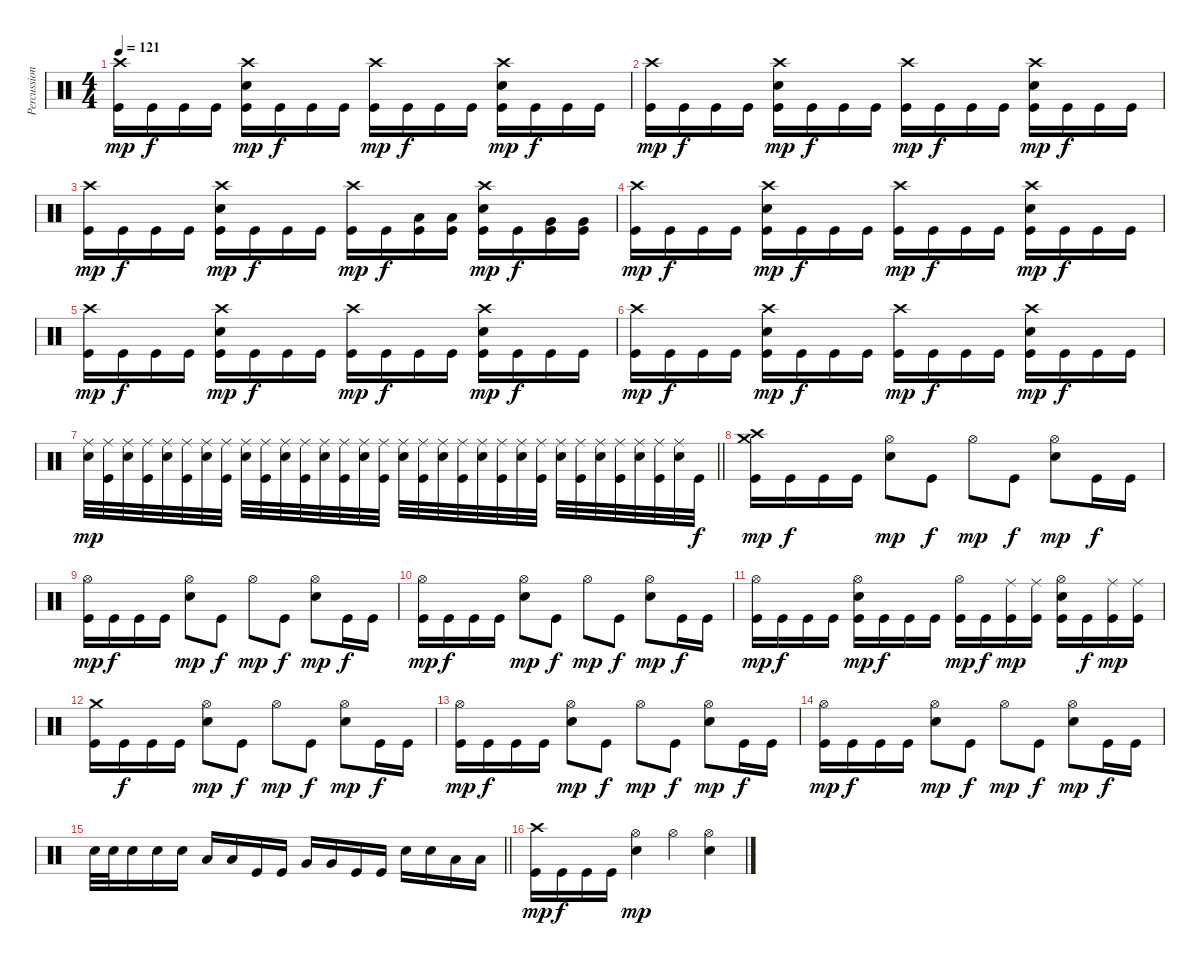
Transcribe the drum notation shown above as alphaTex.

\track ("Percussion" "Percussion") {instrument percussion}
\staff {score}
\articulation defaults
\ts (4 4)
\tempo 121
\clef neutral
\ks c
("Crash high (hit)" "Kick (hit)").16{dy mp} "Kick (hit)".16{dy f} "Kick (hit)".16 "Kick (hit)".16 ("Crash high (hit)" "Electric Snare (hit)" "Kick (hit)").16{dy mp} "Kick (hit)".16{dy f} "Kick (hit)".16 "Kick (hit)".16 ("Crash high (hit)" "Kick (hit)").16{dy mp} "Kick (hit)".16{dy f} "Kick (hit)".16 "Kick (hit)".16 ("Crash high (hit)" "Electric Snare (hit)" "Kick (hit)").16{dy mp} "Kick (hit)".16{dy f} "Kick (hit)".16 "Kick (hit)".16 |
("Crash high (hit)" "Kick (hit)").16{dy mp} "Kick (hit)".16{dy f} "Kick (hit)".16 "Kick (hit)".16 ("Crash high (hit)" "Electric Snare (hit)" "Kick (hit)").16{dy mp} "Kick (hit)".16{dy f} "Kick (hit)".16 "Kick (hit)".16 ("Crash high (hit)" "Kick (hit)").16{dy mp} "Kick (hit)".16{dy f} "Kick (hit)".16 "Kick (hit)".16 ("Crash high (hit)" "Electric Snare (hit)" "Kick (hit)").16{dy mp} "Kick (hit)".16{dy f} "Kick (hit)".16 "Kick (hit)".16 |
("Crash high (hit)" "Kick (hit)").16{dy mp} "Kick (hit)".16{dy f} "Kick (hit)".16 "Kick (hit)".16 ("Crash high (hit)" "Electric Snare (hit)" "Kick (hit)").16{dy mp} "Kick (hit)".16{dy f} "Kick (hit)".16 "Kick (hit)".16 ("Crash high (hit)" "Kick (hit)").16{dy mp} "Kick (hit)".16{dy f} ("Low Tom (hit)" "Kick (hit)").16 ("Low Tom (hit)" "Kick (hit)").16 ("Crash high (hit)" "Electric Snare (hit)" "Kick (hit)").16{dy mp} "Kick (hit)".16{dy f} ("Very Low Tom (hit)" "Kick (hit)").16 ("Very Low Tom (hit)" "Kick (hit)").16 |
("Crash high (hit)" "Kick (hit)").16{dy mp} "Kick (hit)".16{dy f} "Kick (hit)".16 "Kick (hit)".16 ("Crash high (hit)" "Electric Snare (hit)" "Kick (hit)").16{dy mp} "Kick (hit)".16{dy f} "Kick (hit)".16 "Kick (hit)".16 ("Crash high (hit)" "Kick (hit)").16{dy mp} "Kick (hit)".16{dy f} "Kick (hit)".16 "Kick (hit)".16 ("Crash high (hit)" "Electric Snare (hit)" "Kick (hit)").16{dy mp} "Kick (hit)".16{dy f} "Kick (hit)".16 "Kick (hit)".16 |
("Crash high (hit)" "Kick (hit)").16{dy mp} "Kick (hit)".16{dy f} "Kick (hit)".16 "Kick (hit)".16 ("Crash high (hit)" "Electric Snare (hit)" "Kick (hit)").16{dy mp} "Kick (hit)".16{dy f} "Kick (hit)".16 "Kick (hit)".16 ("Crash high (hit)" "Kick (hit)").16{dy mp} "Kick (hit)".16{dy f} "Kick (hit)".16 "Kick (hit)".16 ("Crash high (hit)" "Electric Snare (hit)" "Kick (hit)").16{dy mp} "Kick (hit)".16{dy f} "Kick (hit)".16 "Kick (hit)".16 |
("Crash high (hit)" "Kick (hit)").16{dy mp} "Kick (hit)".16{dy f} "Kick (hit)".16 "Kick (hit)".16 ("Crash high (hit)" "Electric Snare (hit)" "Kick (hit)").16{dy mp} "Kick (hit)".16{dy f} "Kick (hit)".16 "Kick (hit)".16 ("Crash high (hit)" "Kick (hit)").16{dy mp} "Kick (hit)".16{dy f} "Kick (hit)".16 "Kick (hit)".16 ("Crash high (hit)" "Electric Snare (hit)" "Kick (hit)").16{dy mp} "Kick (hit)".16{dy f} "Kick (hit)".16 "Kick (hit)".16 |
\barLineRight lightlight
("Ride (middle)" "Electric Snare (hit)").32{dy mp} ("Ride (middle)" "Kick (hit)").32 ("Ride (middle)" "Electric Snare (hit)").32 ("Ride (middle)" "Kick (hit)").32 ("Ride (middle)" "Electric Snare (hit)").32 ("Ride (middle)" "Kick (hit)").32 ("Ride (middle)" "Electric Snare (hit)").32 ("Ride (middle)" "Kick (hit)").32 ("Ride (middle)" "Electric Snare (hit)").32 ("Ride (middle)" "Kick (hit)").32 ("Ride (middle)" "Electric Snare (hit)").32 ("Ride (middle)" "Kick (hit)").32 ("Ride (middle)" "Electric Snare (hit)").32 ("Ride (middle)" "Kick (hit)").32 ("Ride (middle)" "Electric Snare (hit)").32 ("Ride (middle)" "Kick (hit)").32 ("Ride (middle)" "Electric Snare (hit)").32 ("Ride (middle)" "Kick (hit)").32 ("Ride (middle)" "Electric Snare (hit)").32 ("Ride (middle)" "Kick (hit)").32 ("Ride (middle)" "Electric Snare (hit)").32 ("Ride (middle)" "Kick (hit)").32 ("Ride (middle)" "Electric Snare (hit)").32 ("Ride (middle)" "Kick (hit)").32 ("Ride (middle)" "Electric Snare (hit)").32 ("Ride (middle)" "Kick (hit)").32 ("Ride (middle)" "Electric Snare (hit)").32 ("Ride (middle)" "Kick (hit)").32 ("Ride (middle)" "Electric Snare (hit)").32 ("Ride (middle)" "Kick (hit)").32 ("Ride (middle)" "Electric Snare (hit)").32 "Kick (hit)".32{dy f} |
\section ("" "")
("Crash high (hit)" "Crash medium (hit)" "Kick (hit)").16{dy mp} "Kick (hit)".16{dy f} "Kick (hit)".16 "Kick (hit)".16 ("Hi-Hat (open)" "Electric Snare (hit)").8{dy mp} "Kick (hit)".8{dy f} "Hi-Hat (open)".8{dy mp} "Kick (hit)".8{dy f} ("Hi-Hat (open)" "Electric Snare (hit)").8{dy mp} "Kick (hit)".16{dy f} "Kick (hit)".16 |
("Hi-Hat (open)" "Kick (hit)").16{dy mp} "Kick (hit)".16{dy f} "Kick (hit)".16 "Kick (hit)".16 ("Hi-Hat (open)" "Electric Snare (hit)").8{dy mp} "Kick (hit)".8{dy f} "Hi-Hat (open)".8{dy mp} "Kick (hit)".8{dy f} ("Hi-Hat (open)" "Electric Snare (hit)").8{dy mp} "Kick (hit)".16{dy f} "Kick (hit)".16 |
("Hi-Hat (open)" "Kick (hit)").16{dy mp} "Kick (hit)".16{dy f} "Kick (hit)".16 "Kick (hit)".16 ("Hi-Hat (open)" "Electric Snare (hit)").8{dy mp} "Kick (hit)".8{dy f} "Hi-Hat (open)".8{dy mp} "Kick (hit)".8{dy f} ("Hi-Hat (open)" "Electric Snare (hit)").8{dy mp} "Kick (hit)".16{dy f} "Kick (hit)".16 |
("Hi-Hat (open)" "Kick (hit)").16{dy mp} "Kick (hit)".16{dy f} "Kick (hit)".16 "Kick (hit)".16 ("Hi-Hat (open)" "Electric Snare (hit)" "Kick (hit)").16{dy mp} "Kick (hit)".16{dy f} "Kick (hit)".16 "Kick (hit)".16 ("Hi-Hat (open)" "Kick (hit)").16{dy mp} "Kick (hit)".16{dy f} ("Ride (middle)" "Kick (hit)").16{dy mp} ("Ride (middle)" "Kick (hit)").16 ("Hi-Hat (open)" "Electric Snare (hit)" "Kick (hit)").16 "Kick (hit)".16{dy f} ("Ride (middle)" "Kick (hit)").16{dy mp} ("Ride (middle)" "Kick (hit)").16 |
("Crash medium (hit)" "Kick (hit)").16 "Kick (hit)".16{dy f} "Kick (hit)".16 "Kick (hit)".16 ("Hi-Hat (open)" "Electric Snare (hit)").8{dy mp} "Kick (hit)".8{dy f} "Hi-Hat (open)".8{dy mp} "Kick (hit)".8{dy f} ("Hi-Hat (open)" "Electric Snare (hit)").8{dy mp} "Kick (hit)".16{dy f} "Kick (hit)".16 |
("Hi-Hat (open)" "Kick (hit)").16{dy mp} "Kick (hit)".16{dy f} "Kick (hit)".16 "Kick (hit)".16 ("Hi-Hat (open)" "Electric Snare (hit)").8{dy mp} "Kick (hit)".8{dy f} "Hi-Hat (open)".8{dy mp} "Kick (hit)".8{dy f} ("Hi-Hat (open)" "Electric Snare (hit)").8{dy mp} "Kick (hit)".16{dy f} "Kick (hit)".16 |
("Hi-Hat (open)" "Kick (hit)").16{dy mp} "Kick (hit)".16{dy f} "Kick (hit)".16 "Kick (hit)".16 ("Hi-Hat (open)" "Electric Snare (hit)").8{dy mp} "Kick (hit)".8{dy f} "Hi-Hat (open)".8{dy mp} "Kick (hit)".8{dy f} ("Hi-Hat (open)" "Electric Snare (hit)").8{dy mp} "Kick (hit)".16{dy f} "Kick (hit)".16 |
\barLineRight lightlight "Electric Snare (hit)".32 "Electric Snare (hit)".32 "Electric Snare (hit)".16 "Electric Snare (hit)".16 "Electric Snare (hit)".16 "Low Tom (hit)".16 "Low Tom (hit)".16 "Kick (hit)".16 "Kick (hit)".16 "Very Low Tom (hit)".16 "Very Low Tom (hit)".16 "Kick (hit)".16 "Kick (hit)".16 "Electric Snare (hit)".16 "Electric Snare (hit)".16 "Low Floor Tom (hit)".16 "Low Floor Tom (hit)".16
|
\section ("" "")
("Crash high (hit)" "Kick (hit)").16{dy mp} "Kick (hit)".16{dy f} "Kick (hit)".16 "Kick (hit)".16 ("Hi-Hat (open)" "Electric Snare (hit)").4{dy mp} "Hi-Hat (open)".4 ("Hi-Hat (open)" "Electric Snare (hit)").4
